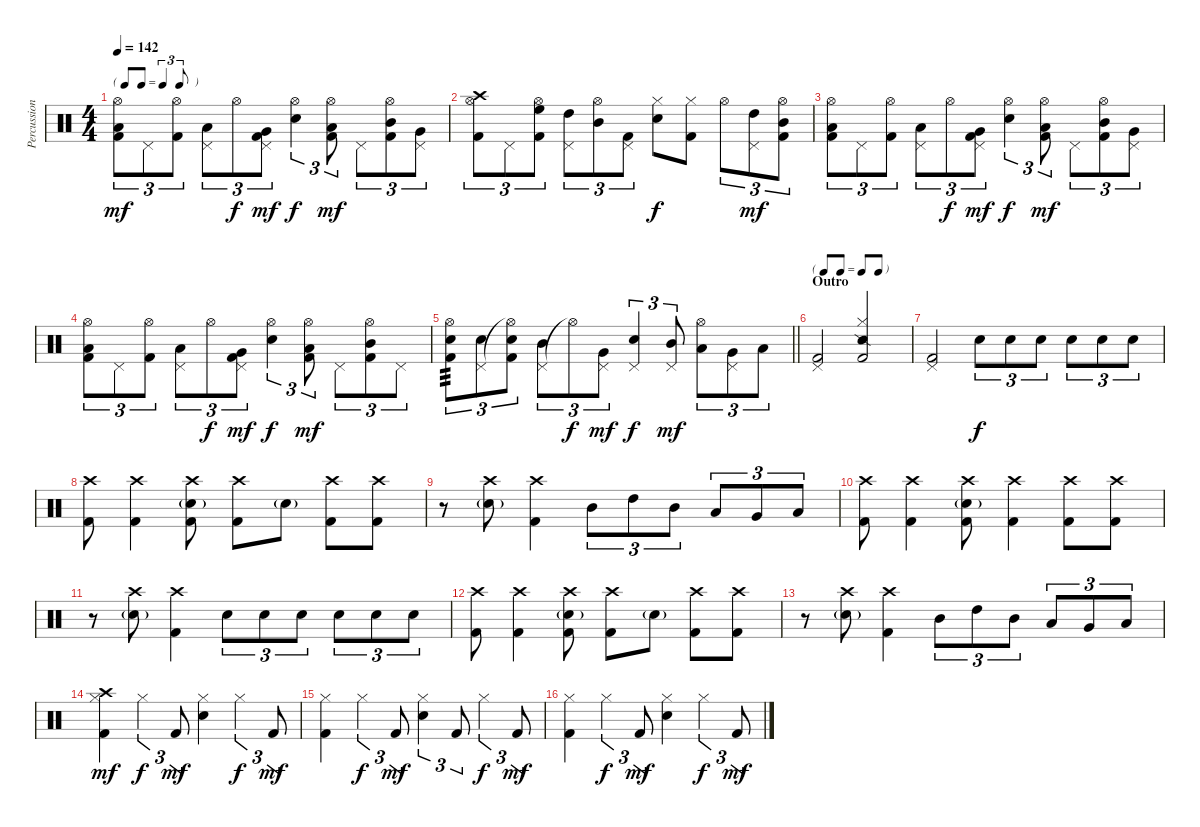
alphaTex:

\track ("Percussion" "Percussion") {instrument percussion}
\staff {score}
\articulation defaults
\ts (4 4)
\tf triplet8th
\tempo 142
\clef neutral
\ks c
("Hi-Hat (open)" "Low Tom (hit)" "Kick (hit) 2").8{tu (3 2) dy mf} "Pedal Hi-Hat (hit)".8{tu (3 2)} ("Hi-Hat (open)" "Kick (hit) 2").8{tu (3 2)} ("Pedal Hi-Hat (hit)" "Low Tom (hit)").8{tu (3 2)} "Hi-Hat (open)".8{tu (3 2) dy f} ("Pedal Hi-Hat (hit)" "Very Low Tom (hit)" "Kick (hit) 2").8{tu (3 2) dy mf} ("Hi-Hat (open)" "Electric Snare (hit)").4{tu (3 2) dy f} ("Hi-Hat (open)" "Low Tom (hit)" "Kick (hit) 2").8{tu (3 2) dy mf} "Pedal Hi-Hat (hit)".8{tu (3 2)} ("Hi-Hat (open)" "Mid Tom (hit)" "Kick (hit) 2").8{tu (3 2)} ("Pedal Hi-Hat (hit)" "Very Low Tom (hit)").8{tu (3 2)} |
("Crash high (hit)" "Hi-Hat (open)" "Kick (hit) 2").8{tu (3 2)} "Pedal Hi-Hat (hit)".8{tu (3 2)} ("Hi-Hat (open)" "High Floor Tom (hit)" "Kick (hit) 2").8{tu (3 2)} ("Pedal Hi-Hat (hit)" "High Tom (hit)").8{tu (3 2)} ("Hi-Hat (open)" "Mid Tom (hit)").8{tu (3 2)} ("Pedal Hi-Hat (hit)" "Kick (hit) 2").8{tu (3 2)} ("Hi-Hat (closed)" "Electric Snare (hit)").8{dy f} ("Hi-Hat (closed)" "Kick (hit) 2").8 "Hi-Hat (open)".8{tu (3 2)} ("Pedal Hi-Hat (hit)" "High Tom (hit)").8{tu (3 2) dy mf} ("Hi-Hat (open)" "Mid Tom (hit)" "Kick (hit) 2").8{tu (3 2)} |
("Hi-Hat (open)" "Low Tom (hit)" "Kick (hit) 2").8{tu (3 2)} "Pedal Hi-Hat (hit)".8{tu (3 2)} ("Hi-Hat (open)" "Kick (hit) 2").8{tu (3 2)} ("Pedal Hi-Hat (hit)" "Low Tom (hit)").8{tu (3 2)} "Hi-Hat (open)".8{tu (3 2) dy f} ("Pedal Hi-Hat (hit)" "Very Low Tom (hit)" "Kick (hit) 2").8{tu (3 2) dy mf} ("Hi-Hat (open)" "Electric Snare (hit)").4{tu (3 2) dy f} ("Hi-Hat (open)" "Low Tom (hit)" "Kick (hit) 2").8{tu (3 2) dy mf} "Pedal Hi-Hat (hit)".8{tu (3 2)} ("Hi-Hat (open)" "Mid Tom (hit)" "Kick (hit) 2").8{tu (3 2)} ("Pedal Hi-Hat (hit)" "Very Low Tom (hit)").8{tu (3 2)} |
("Hi-Hat (open)" "Low Tom (hit)" "Kick (hit) 2").8{tu (3 2)} "Pedal Hi-Hat (hit)".8{tu (3 2)} ("Hi-Hat (open)" "Kick (hit) 2").8{tu (3 2)} ("Pedal Hi-Hat (hit)" "Low Tom (hit)").8{tu (3 2)} "Hi-Hat (open)".8{tu (3 2) dy f} ("Pedal Hi-Hat (hit)" "Very Low Tom (hit)" "Kick (hit) 2").8{tu (3 2) dy mf} ("Hi-Hat (open)" "Electric Snare (hit)").4{tu (3 2) dy f} ("Hi-Hat (open)" "Low Tom (hit)" "Kick (hit) 2").8{tu (3 2) dy mf} "Pedal Hi-Hat (hit)".8{tu (3 2)} ("Hi-Hat (open)" "Mid Tom (hit)" "Kick (hit) 2").8{tu (3 2)} "Pedal Hi-Hat (hit)".8{tu (3 2)} |
\barLineRight lightlight
("Hi-Hat (open)" "Electric Snare (hit)" "Kick (hit) 2").8{tu (3 2) tp 3} ("Pedal Hi-Hat (hit)" "Electric Snare (hit)").8{tu (3 2)} ("Hi-Hat (open)"{t} "Electric Snare (hit)" "Kick (hit) 2").8{tu (3 2)} ("Pedal Hi-Hat (hit)" "Mid Tom (hit)").8{tu (3 2)} "Hi-Hat (open)"{t}.8{tu (3 2) dy f} ("Pedal Hi-Hat (hit)" "Very Low Tom (hit)").8{tu (3 2) dy mf} ("Pedal Hi-Hat (hit)" "Electric Snare (hit)").4{tu (3 2) dy f} ("Pedal Hi-Hat (hit)" "Mid Tom (hit)").8{tu (3 2) dy mf} ("Hi-Hat (open)" "Low Tom (hit)").8{tu (3 2)} ("Pedal Hi-Hat (hit)" "Very Low Tom (hit)").8{tu (3 2)} "Low Floor Tom (hit)".8{tu (3 2)} |
\tf none
\section ("" "Outro")
("Pedal Hi-Hat (hit)" "Kick (hit) 2").2 ("Hi-Hat (closed)" "Snare (side stick) 2" "Kick (hit) 2").2 |
("Pedal Hi-Hat (hit)" "Kick (hit) 2").2 "Electric Snare (hit)".8{tu (3 2) dy f} "Electric Snare (hit)".8{tu (3 2)} "Electric Snare (hit)".8{tu (3 2)} "Electric Snare (hit)".8{tu (3 2)} "Electric Snare (hit)".8{tu (3 2)} "Electric Snare (hit)".8{tu (3 2)} |
("Crash high (hit)" "Kick (hit) 2").8 ("Crash high (hit)" "Kick (hit) 2").4 ("Crash high (hit)" "Electric Snare (hit)"{g} "Kick (hit) 2").8 ("Crash high (hit)" "Kick (hit) 2").8 "Electric Snare (hit)"{g}.8 ("Crash high (hit)" "Kick (hit) 2").8 ("Crash high (hit)" "Kick (hit) 2").8 |
r.8 ("Crash high (hit)" "Electric Snare (hit)"{g}).8 ("Crash high (hit)" "Kick (hit) 2").4 "Mid Tom (hit)".8{tu (3 2)} "High Tom (hit)".8{tu (3 2)} "Mid Tom (hit)".8{tu (3 2)} "Low Tom (hit)".8{tu (3 2)} "Very Low Tom (hit)".8{tu (3 2)} "Low Floor Tom (hit)".8{tu (3 2)} |
("Crash high (hit)" "Kick (hit) 2").8 ("Crash high (hit)" "Kick (hit) 2").4 ("Crash high (hit)" "Electric Snare (hit)"{g} "Kick (hit) 2").8 ("Crash high (hit)" "Kick (hit) 2").4 ("Crash high (hit)" "Kick (hit) 2").8 ("Crash high (hit)" "Kick (hit) 2").8 |
r.8 ("Crash high (hit)" "Electric Snare (hit)"{g}).8 ("Crash high (hit)" "Kick (hit) 2").4 "Electric Snare (hit)".8{tu (3 2)} "Electric Snare (hit)".8{tu (3 2)} "Electric Snare (hit)".8{tu (3 2)} "Electric Snare (hit)".8{tu (3 2)} "Electric Snare (hit)".8{tu (3 2)} "Electric Snare (hit)".8{tu (3 2)} |
("Crash high (hit)" "Kick (hit) 2").8 ("Crash high (hit)" "Kick (hit) 2").4 ("Crash high (hit)" "Electric Snare (hit)"{g} "Kick (hit) 2").8 ("Crash high (hit)" "Kick (hit) 2").8 "Electric Snare (hit)"{g}.8 ("Crash high (hit)" "Kick (hit) 2").8 ("Crash high (hit)" "Kick (hit) 2").8 |
r.8 ("Crash high (hit)" "Electric Snare (hit)"{g}).8 ("Crash high (hit)" "Kick (hit) 2").4 "Mid Tom (hit)".8{tu (3 2)} "High Tom (hit)".8{tu (3 2)} "Mid Tom (hit)".8{tu (3 2)} "Low Tom (hit)".8{tu (3 2)} "Very Low Tom (hit)".8{tu (3 2)} "Low Floor Tom (hit)".8{tu (3 2)} |
("Crash high (hit)" "Hi-Hat (closed)" "Kick (hit) 2").4{dy mf} "Hi-Hat (closed)".4{tu (3 2) dy f} "Kick (hit) 2".8{tu (3 2) dy mf} ("Hi-Hat (closed)" "Electric Snare (hit)").4 "Hi-Hat (closed)".4{tu (3 2) dy f} "Kick (hit) 2".8{tu (3 2) dy mf} |
("Hi-Hat (closed)" "Kick (hit) 2").4 "Hi-Hat (closed)".4{tu (3 2) dy f} "Kick (hit) 2".8{tu (3 2) dy mf} ("Hi-Hat (closed)" "Electric Snare (hit)").4{tu (3 2)} "Kick (hit) 2".8{tu (3 2)} "Hi-Hat (closed)".4{tu (3 2) dy f} "Kick (hit) 2".8{tu (3 2) dy mf} |
("Hi-Hat (closed)" "Kick (hit) 2").4 "Hi-Hat (closed)".4{tu (3 2) dy f} "Kick (hit) 2".8{tu (3 2) dy mf} ("Hi-Hat (closed)" "Electric Snare (hit)").4 "Hi-Hat (closed)".4{tu (3 2) dy f} "Kick (hit) 2".8{tu (3 2) dy mf}
